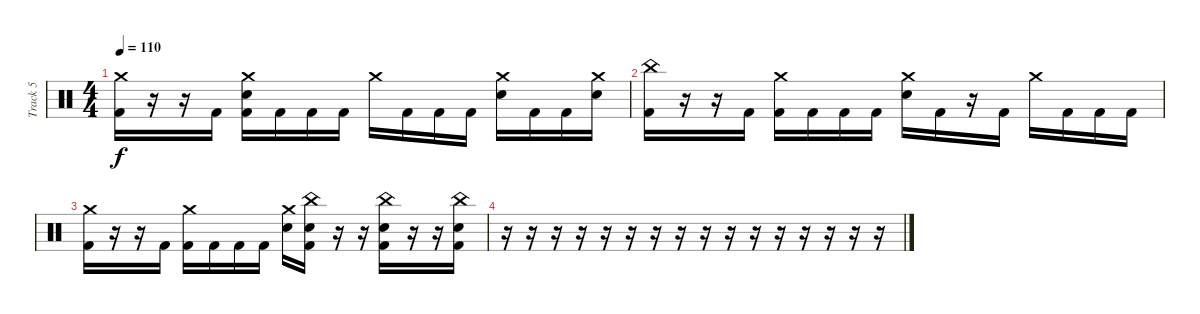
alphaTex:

\track ("Track 5" "Track 5") {instrument percussion}
\staff {score}
\articulation defaults
\ts (4 4)
\tempo 110
\clef neutral
\ks c
("Crash medium (hit)" "Kick (hit) 2").16{dy f} r.16 r.16 "Kick (hit) 2".16 ("Crash medium (hit)" "Electric Snare (hit)" "Kick (hit) 2").16 "Kick (hit) 2".16 "Kick (hit) 2".16 "Kick (hit) 2".16 "Crash medium (hit)".16 "Kick (hit) 2".16 "Kick (hit) 2".16 "Kick (hit) 2".16 ("Crash medium (hit)" "Electric Snare (hit)").16 "Kick (hit) 2".16 "Kick (hit) 2".16 ("Crash medium (hit)" "Electric Snare (hit)").16 |
("China (hit)" "Kick (hit) 2").16 r.16 r.16 "Kick (hit) 2".16 ("Crash medium (hit)" "Kick (hit) 2").16 "Kick (hit) 2".16 "Kick (hit) 2".16 "Kick (hit) 2".16 ("Crash medium (hit)" "Electric Snare (hit)").16 "Kick (hit) 2".16 r.16 "Kick (hit) 2".16 "Crash medium (hit)".16 "Kick (hit) 2".16 "Kick (hit) 2".16 "Kick (hit) 2".16 |
("Crash medium (hit)" "Kick (hit) 2").16 r.16 r.16 "Kick (hit) 2".16 ("Crash medium (hit)" "Kick (hit) 2").16 "Kick (hit) 2".16 "Kick (hit) 2".16 "Kick (hit) 2".16 ("Crash medium (hit)" "Electric Snare (hit)").16 ("China (hit)" "Electric Snare (hit)" "Kick (hit) 2").16 r.16 r.16 ("China (hit)" "Electric Snare (hit)" "Kick (hit) 2").16 r.16 r.16 ("China (hit)" "Electric Snare (hit)" "Kick (hit) 2").16 |
r.16 r.16 r.16 r.16 r.16 r.16 r.16 r.16 r.16 r.16 r.16 r.16 r.16 r.16 r.16 r.16
